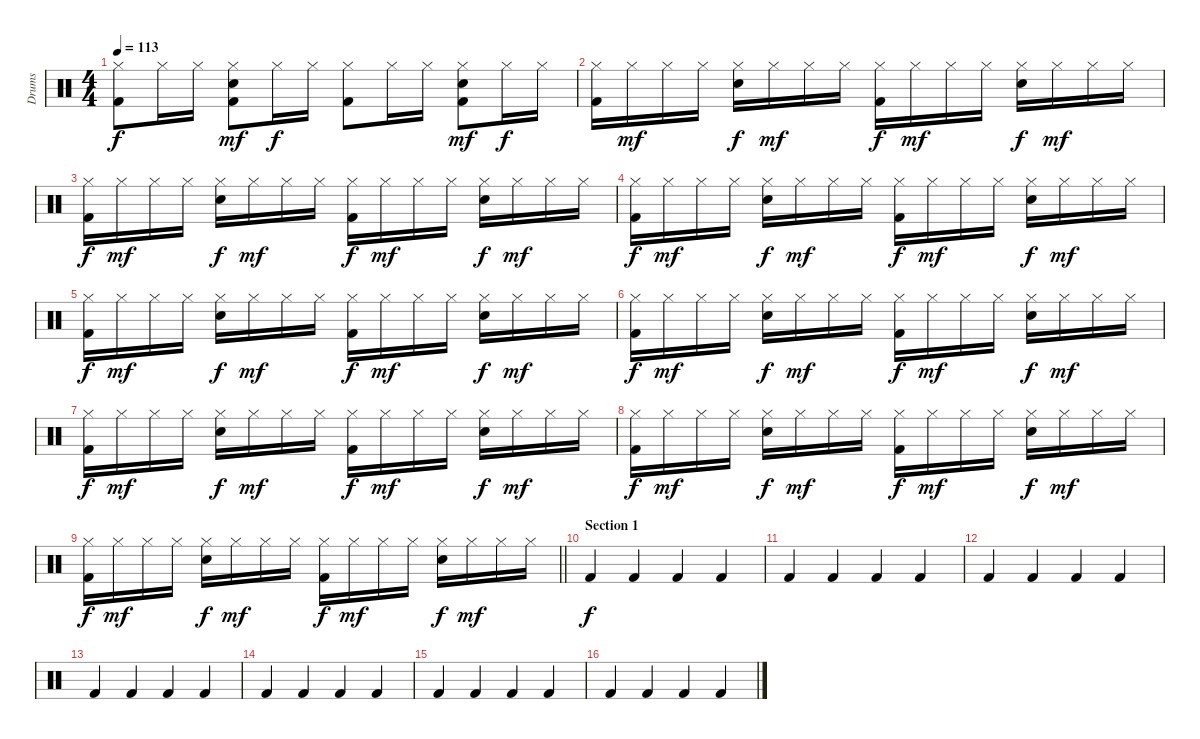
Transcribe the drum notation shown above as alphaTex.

\track ("Drums" "Drums") {instrument percussion}
\staff {score}
\articulation defaults
\ts (4 4)
\tempo 113
\clef neutral
\ks c
("Hi-Hat (closed)" "Kick (hit) 2").8{dy f} "Hi-Hat (closed)".16 "Hi-Hat (closed)".16 ("Hi-Hat (closed)" "Snare (hit) 2" "Kick (hit) 2").8{dy mf} "Hi-Hat (closed)".16{dy f} "Hi-Hat (closed)".16 ("Hi-Hat (closed)" "Kick (hit) 2").8 "Hi-Hat (closed)".16 "Hi-Hat (closed)".16 ("Hi-Hat (closed)" "Snare (hit) 2" "Kick (hit) 2").8{dy mf} "Hi-Hat (closed)".16{dy f} "Hi-Hat (closed)".16 |
("Hi-Hat (closed)" "Kick (hit) 2").16 "Hi-Hat (closed)".16{dy mf} "Hi-Hat (closed)".16 "Hi-Hat (closed)".16 ("Hi-Hat (closed)" "Snare (hit) 2").16{dy f} "Hi-Hat (closed)".16{dy mf} "Hi-Hat (closed)".16 "Hi-Hat (closed)".16 ("Hi-Hat (closed)" "Kick (hit) 2").16{dy f} "Hi-Hat (closed)".16{dy mf} "Hi-Hat (closed)".16 "Hi-Hat (closed)".16 ("Hi-Hat (closed)" "Snare (hit) 2").16{dy f} "Hi-Hat (closed)".16{dy mf} "Hi-Hat (closed)".16 "Hi-Hat (closed)".16 |
("Hi-Hat (closed)" "Kick (hit) 2").16{dy f} "Hi-Hat (closed)".16{dy mf} "Hi-Hat (closed)".16 "Hi-Hat (closed)".16 ("Hi-Hat (closed)" "Snare (hit) 2").16{dy f} "Hi-Hat (closed)".16{dy mf} "Hi-Hat (closed)".16 "Hi-Hat (closed)".16 ("Hi-Hat (closed)" "Kick (hit) 2").16{dy f} "Hi-Hat (closed)".16{dy mf} "Hi-Hat (closed)".16 "Hi-Hat (closed)".16 ("Hi-Hat (closed)" "Snare (hit) 2").16{dy f} "Hi-Hat (closed)".16{dy mf} "Hi-Hat (closed)".16 "Hi-Hat (closed)".16 |
("Hi-Hat (closed)" "Kick (hit) 2").16{dy f} "Hi-Hat (closed)".16{dy mf} "Hi-Hat (closed)".16 "Hi-Hat (closed)".16 ("Hi-Hat (closed)" "Snare (hit) 2").16{dy f} "Hi-Hat (closed)".16{dy mf} "Hi-Hat (closed)".16 "Hi-Hat (closed)".16 ("Hi-Hat (closed)" "Kick (hit) 2").16{dy f} "Hi-Hat (closed)".16{dy mf} "Hi-Hat (closed)".16 "Hi-Hat (closed)".16 ("Hi-Hat (closed)" "Snare (hit) 2").16{dy f} "Hi-Hat (closed)".16{dy mf} "Hi-Hat (closed)".16 "Hi-Hat (closed)".16 |
("Hi-Hat (closed)" "Kick (hit) 2").16{dy f} "Hi-Hat (closed)".16{dy mf} "Hi-Hat (closed)".16 "Hi-Hat (closed)".16 ("Hi-Hat (closed)" "Snare (hit) 2").16{dy f} "Hi-Hat (closed)".16{dy mf} "Hi-Hat (closed)".16 "Hi-Hat (closed)".16 ("Hi-Hat (closed)" "Kick (hit) 2").16{dy f} "Hi-Hat (closed)".16{dy mf} "Hi-Hat (closed)".16 "Hi-Hat (closed)".16 ("Hi-Hat (closed)" "Snare (hit) 2").16{dy f} "Hi-Hat (closed)".16{dy mf} "Hi-Hat (closed)".16 "Hi-Hat (closed)".16 |
("Hi-Hat (closed)" "Kick (hit) 2").16{dy f} "Hi-Hat (closed)".16{dy mf} "Hi-Hat (closed)".16 "Hi-Hat (closed)".16 ("Hi-Hat (closed)" "Snare (hit) 2").16{dy f} "Hi-Hat (closed)".16{dy mf} "Hi-Hat (closed)".16 "Hi-Hat (closed)".16 ("Hi-Hat (closed)" "Kick (hit) 2").16{dy f} "Hi-Hat (closed)".16{dy mf} "Hi-Hat (closed)".16 "Hi-Hat (closed)".16 ("Hi-Hat (closed)" "Snare (hit) 2").16{dy f} "Hi-Hat (closed)".16{dy mf} "Hi-Hat (closed)".16 "Hi-Hat (closed)".16 |
("Hi-Hat (closed)" "Kick (hit) 2").16{dy f} "Hi-Hat (closed)".16{dy mf} "Hi-Hat (closed)".16 "Hi-Hat (closed)".16 ("Hi-Hat (closed)" "Snare (hit) 2").16{dy f} "Hi-Hat (closed)".16{dy mf} "Hi-Hat (closed)".16 "Hi-Hat (closed)".16 ("Hi-Hat (closed)" "Kick (hit) 2").16{dy f} "Hi-Hat (closed)".16{dy mf} "Hi-Hat (closed)".16 "Hi-Hat (closed)".16 ("Hi-Hat (closed)" "Snare (hit) 2").16{dy f} "Hi-Hat (closed)".16{dy mf} "Hi-Hat (closed)".16 "Hi-Hat (closed)".16 |
("Hi-Hat (closed)" "Kick (hit) 2").16{dy f} "Hi-Hat (closed)".16{dy mf} "Hi-Hat (closed)".16 "Hi-Hat (closed)".16 ("Hi-Hat (closed)" "Snare (hit) 2").16{dy f} "Hi-Hat (closed)".16{dy mf} "Hi-Hat (closed)".16 "Hi-Hat (closed)".16 ("Hi-Hat (closed)" "Kick (hit) 2").16{dy f} "Hi-Hat (closed)".16{dy mf} "Hi-Hat (closed)".16 "Hi-Hat (closed)".16 ("Hi-Hat (closed)" "Snare (hit) 2").16{dy f} "Hi-Hat (closed)".16{dy mf} "Hi-Hat (closed)".16 "Hi-Hat (closed)".16 |
\barLineRight lightlight
("Hi-Hat (closed)" "Kick (hit) 2").16{dy f} "Hi-Hat (closed)".16{dy mf} "Hi-Hat (closed)".16 "Hi-Hat (closed)".16 ("Hi-Hat (closed)" "Snare (hit) 2").16{dy f} "Hi-Hat (closed)".16{dy mf} "Hi-Hat (closed)".16 "Hi-Hat (closed)".16 ("Hi-Hat (closed)" "Kick (hit) 2").16{dy f} "Hi-Hat (closed)".16{dy mf} "Hi-Hat (closed)".16 "Hi-Hat (closed)".16 ("Hi-Hat (closed)" "Snare (hit) 2").16{dy f} "Hi-Hat (closed)".16{dy mf} "Hi-Hat (closed)".16 "Hi-Hat (closed)".16 |
\section ("" "Section 1")
"Kick (hit) 2".4{dy f} "Kick (hit) 2".4 "Kick (hit) 2".4 "Kick (hit) 2".4 |
"Kick (hit) 2".4 "Kick (hit) 2".4 "Kick (hit) 2".4 "Kick (hit) 2".4 |
"Kick (hit) 2".4 "Kick (hit) 2".4 "Kick (hit) 2".4 "Kick (hit) 2".4 |
"Kick (hit) 2".4 "Kick (hit) 2".4 "Kick (hit) 2".4 "Kick (hit) 2".4 |
"Kick (hit) 2".4 "Kick (hit) 2".4 "Kick (hit) 2".4 "Kick (hit) 2".4 |
"Kick (hit) 2".4 "Kick (hit) 2".4 "Kick (hit) 2".4 "Kick (hit) 2".4 |
"Kick (hit) 2".4 "Kick (hit) 2".4 "Kick (hit) 2".4 "Kick (hit) 2".4
